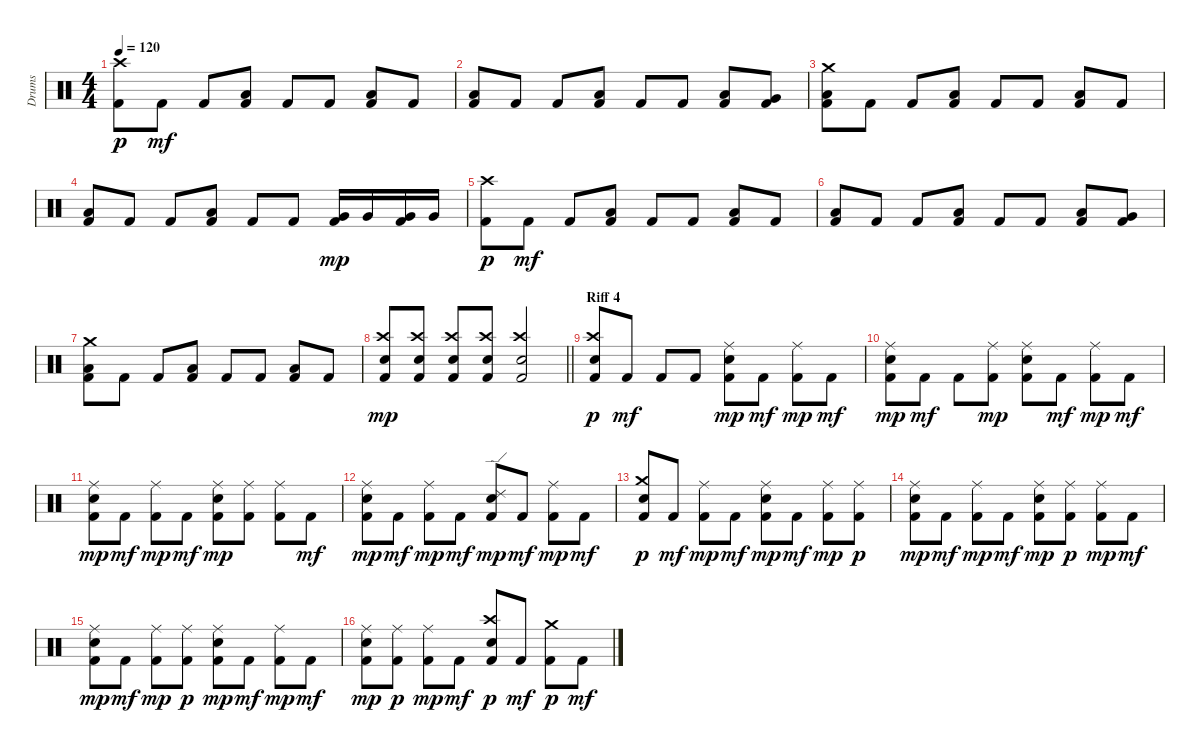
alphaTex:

\track ("Drums" "Drums") {instrument percussion}
\staff {score}
\articulation defaults
\ts (4 4)
\tempo 120
\clef neutral
\ks c
("Kick (hit) 2" "Crash high (hit)").8{dy p} "Kick (hit) 2".8{dy mf} "Kick (hit) 2".8 ("Kick (hit) 2" "Low Tom (hit)").8 "Kick (hit) 2".8 "Kick (hit) 2".8 ("Kick (hit) 2" "Low Tom (hit)").8 "Kick (hit) 2".8 |
("Kick (hit) 2" "Low Tom (hit)").8 "Kick (hit) 2".8 "Kick (hit) 2".8 ("Kick (hit) 2" "Low Tom (hit)").8 "Kick (hit) 2".8 "Kick (hit) 2".8 ("Kick (hit) 2" "Low Tom (hit)").8 ("Kick (hit) 2" "Very Low Tom (hit)").8 |
("Kick (hit) 2" "Crash medium (hit)" "Low Tom (hit)").8 "Kick (hit) 2".8 "Kick (hit) 2".8 ("Kick (hit) 2" "Low Tom (hit)").8 "Kick (hit) 2".8 "Kick (hit) 2".8 ("Kick (hit) 2" "Low Tom (hit)").8 "Kick (hit) 2".8 |
("Kick (hit) 2" "Low Tom (hit)").8 "Kick (hit) 2".8 "Kick (hit) 2".8 ("Kick (hit) 2" "Low Tom (hit)").8 "Kick (hit) 2".8 "Kick (hit) 2".8 ("Kick (hit) 2" "Very Low Tom (hit)").16{dy mp} "Very Low Tom (hit)".16 ("Kick (hit) 2" "Very Low Tom (hit)").16 "Very Low Tom (hit)".16 |
("Kick (hit) 2" "Crash high (hit)").8{dy p} "Kick (hit) 2".8{dy mf} "Kick (hit) 2".8 ("Kick (hit) 2" "Low Tom (hit)").8 "Kick (hit) 2".8 "Kick (hit) 2".8 ("Kick (hit) 2" "Low Tom (hit)").8 "Kick (hit) 2".8 |
("Kick (hit) 2" "Low Tom (hit)").8 "Kick (hit) 2".8 "Kick (hit) 2".8 ("Kick (hit) 2" "Low Tom (hit)").8 "Kick (hit) 2".8 "Kick (hit) 2".8 ("Kick (hit) 2" "Low Tom (hit)").8 ("Kick (hit) 2" "Very Low Tom (hit)").8 |
("Kick (hit) 2" "Crash medium (hit)" "Low Tom (hit)").8 "Kick (hit) 2".8 "Kick (hit) 2".8 ("Kick (hit) 2" "Low Tom (hit)").8 "Kick (hit) 2".8 "Kick (hit) 2".8 ("Kick (hit) 2" "Low Tom (hit)").8 "Kick (hit) 2".8 |
\barLineRight lightlight
("Kick (hit) 2" "Crash high (hit)" "Snare (hit) 2").8{dy mp} ("Kick (hit) 2" "Crash high (hit)" "Snare (hit) 2").8 ("Kick (hit) 2" "Crash high (hit)" "Snare (hit) 2").8 ("Kick (hit) 2" "Crash high (hit)" "Snare (hit) 2").8 ("Kick (hit) 2" "Crash high (hit)" "Snare (hit) 2").2 |
\section ("" "Riff 4")
("Kick (hit) 2" "Crash high (hit)" "Snare (hit) 2").8{dy p} "Kick (hit) 2".8{dy mf} "Kick (hit) 2".8 "Kick (hit) 2".8 ("Kick (hit) 2" "Ride (middle)" "Snare (hit) 2").8{dy mp} "Kick (hit) 2".8{dy mf} ("Kick (hit) 2" "Ride (middle)").8{dy mp} "Kick (hit) 2".8{dy mf} |
("Kick (hit) 2" "Ride (middle)" "Snare (hit) 2").8{dy mp} "Kick (hit) 2".8{dy mf} "Kick (hit) 2".8 ("Kick (hit) 2" "Ride (middle)").8{dy mp} ("Kick (hit) 2" "Ride (middle)" "Snare (hit) 2").8 "Kick (hit) 2".8{dy mf} ("Kick (hit) 2" "Ride (middle)").8{dy mp} "Kick (hit) 2".8{dy mf} |
("Kick (hit) 2" "Ride (middle)" "Snare (hit) 2").8{dy mp} "Kick (hit) 2".8{dy mf} ("Kick (hit) 2" "Ride (middle)").8{dy mp} "Kick (hit) 2".8{dy mf} ("Kick (hit) 2" "Ride (middle)" "Snare (hit) 2").8{dy mp} ("Kick (hit) 2" "Ride (middle)").8 ("Kick (hit) 2" "Ride (middle)").8 "Kick (hit) 2".8{dy mf} |
("Kick (hit) 2" "Ride (middle)" "Snare (hit) 2").8{dy mp} "Kick (hit) 2".8{dy mf} ("Kick (hit) 2" "Ride (middle)").8{dy mp} "Kick (hit) 2".8{dy mf} ("Kick (hit) 2" "Ride (edge) 2" "Snare (hit) 2").8{dy mp} "Kick (hit) 2".8{dy mf} ("Kick (hit) 2" "Ride (middle)").8{dy mp} "Kick (hit) 2".8{dy mf} |
("Kick (hit) 2" "Crash medium (hit)" "Snare (hit) 2").8{dy p} "Kick (hit) 2".8{dy mf} ("Kick (hit) 2" "Ride (middle)").8{dy mp} "Kick (hit) 2".8{dy mf} ("Kick (hit) 2" "Ride (middle)" "Snare (hit) 2").8{dy mp} "Kick (hit) 2".8{dy mf} ("Kick (hit) 2" "Ride (middle)").8{dy mp} ("Kick (hit) 2" "Ride (middle)").8{dy p} |
("Kick (hit) 2" "Ride (middle)" "Snare (hit) 2").8{dy mp} "Kick (hit) 2".8{dy mf} ("Kick (hit) 2" "Ride (middle)").8{dy mp} "Kick (hit) 2".8{dy mf} ("Kick (hit) 2" "Ride (middle)" "Snare (hit) 2").8{dy mp} ("Kick (hit) 2" "Ride (middle)").8{dy p} ("Kick (hit) 2" "Ride (middle)").8{dy mp} "Kick (hit) 2".8{dy mf} |
("Kick (hit) 2" "Ride (middle)" "Snare (hit) 2").8{dy mp} "Kick (hit) 2".8{dy mf} ("Kick (hit) 2" "Ride (middle)").8{dy mp} ("Kick (hit) 2" "Ride (middle)").8{dy p} ("Kick (hit) 2" "Ride (middle)" "Snare (hit) 2").8{dy mp} "Kick (hit) 2".8{dy mf} ("Kick (hit) 2" "Ride (middle)").8{dy mp} "Kick (hit) 2".8{dy mf} |
("Kick (hit) 2" "Ride (middle)" "Snare (hit) 2").8{dy mp} ("Kick (hit) 2" "Ride (middle)").8{dy p} ("Kick (hit) 2" "Ride (middle)").8{dy mp} "Kick (hit) 2".8{dy mf} ("Kick (hit) 2" "Crash high (hit)" "Snare (hit) 2").8{dy p} "Kick (hit) 2".8{dy mf} ("Kick (hit) 2" "Crash medium (hit)").8{dy p} "Kick (hit) 2".8{dy mf}
